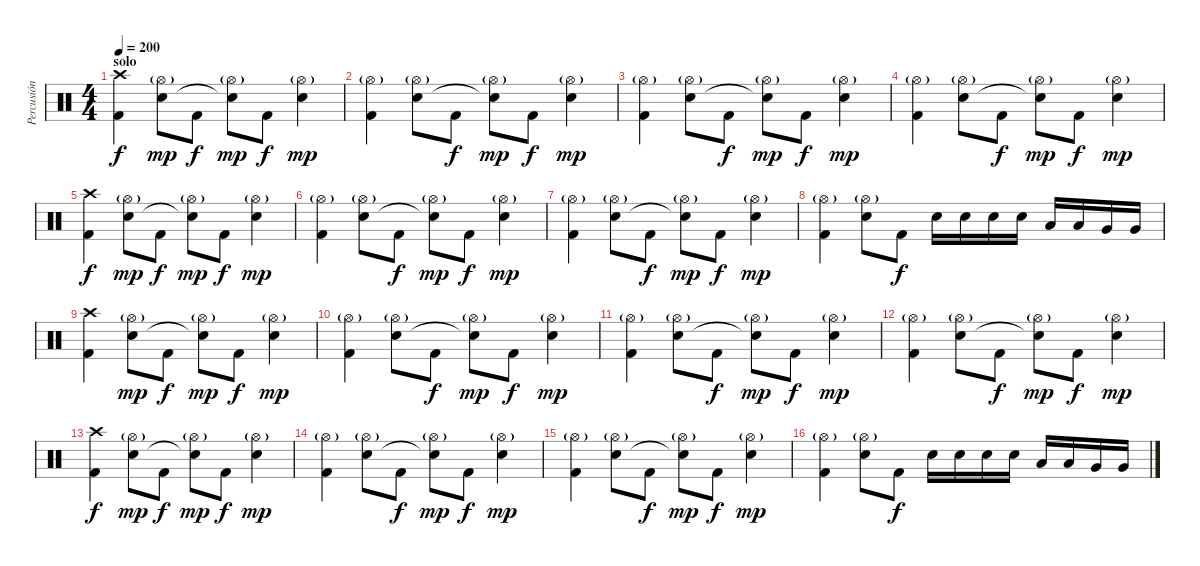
\track ("Percusión" "Percusión") {instrument percussion}
\staff {score}
\articulation defaults
\ts (4 4)
\section ("" "solo")
\tempo 200
\clef neutral
\ks c
("Crash high (hit)" "Kick (hit) 2").4{dy f} ("Hi-Hat (open)"{g} "Snare (hit) 2").8{dy mp} "Kick (hit) 2".8{dy f} ("Hi-Hat (open)"{g} "Snare (hit)"{t}).8{dy mp} "Kick (hit) 2".8{dy f} ("Hi-Hat (open)"{g} "Snare (hit) 2").4{dy mp} |
("Hi-Hat (open)"{g} "Kick (hit) 2").4 ("Hi-Hat (open)"{g} "Snare (hit) 2").8 "Kick (hit) 2".8{dy f} ("Hi-Hat (open)"{g} "Snare (hit)"{t}).8{dy mp} "Kick (hit) 2".8{dy f} ("Hi-Hat (open)"{g} "Snare (hit) 2").4{dy mp} |
("Hi-Hat (open)"{g} "Kick (hit) 2").4 ("Hi-Hat (open)"{g} "Snare (hit) 2").8 "Kick (hit) 2".8{dy f} ("Hi-Hat (open)"{g} "Snare (hit)"{t}).8{dy mp} "Kick (hit) 2".8{dy f} ("Hi-Hat (open)"{g} "Snare (hit) 2").4{dy mp} |
("Hi-Hat (open)"{g} "Kick (hit) 2").4 ("Hi-Hat (open)"{g} "Snare (hit) 2").8 "Kick (hit) 2".8{dy f} ("Hi-Hat (open)"{g} "Snare (hit)"{t}).8{dy mp} "Kick (hit) 2".8{dy f} ("Hi-Hat (open)"{g} "Snare (hit) 2").4{dy mp} |
("Crash high (hit)" "Kick (hit) 2").4{dy f} ("Hi-Hat (open)"{g} "Snare (hit) 2").8{dy mp} "Kick (hit) 2".8{dy f} ("Hi-Hat (open)"{g} "Snare (hit)"{t}).8{dy mp} "Kick (hit) 2".8{dy f} ("Hi-Hat (open)"{g} "Snare (hit) 2").4{dy mp} |
("Hi-Hat (open)"{g} "Kick (hit) 2").4 ("Hi-Hat (open)"{g} "Snare (hit) 2").8 "Kick (hit) 2".8{dy f} ("Hi-Hat (open)"{g} "Snare (hit)"{t}).8{dy mp} "Kick (hit) 2".8{dy f} ("Hi-Hat (open)"{g} "Snare (hit) 2").4{dy mp} |
("Hi-Hat (open)"{g} "Kick (hit) 2").4 ("Hi-Hat (open)"{g} "Snare (hit) 2").8 "Kick (hit) 2".8{dy f} ("Hi-Hat (open)"{g} "Snare (hit)"{t}).8{dy mp} "Kick (hit) 2".8{dy f} ("Hi-Hat (open)"{g} "Snare (hit) 2").4{dy mp} |
("Hi-Hat (open)"{g} "Kick (hit) 2").4 ("Hi-Hat (open)"{g} "Snare (hit) 2").8 "Kick (hit) 2".8{dy f} "Snare (hit) 2".16 "Snare (hit) 2".16 "Snare (hit) 2".16 "Snare (hit) 2".16 "Low Tom (hit)".16 "Low Tom (hit)".16 "Very Low Tom (hit)".16 "Very Low Tom (hit)".16 |
("Crash high (hit)" "Kick (hit) 2").4 ("Hi-Hat (open)"{g} "Snare (hit) 2").8{dy mp} "Kick (hit) 2".8{dy f} ("Hi-Hat (open)"{g} "Snare (hit)"{t}).8{dy mp} "Kick (hit) 2".8{dy f} ("Hi-Hat (open)"{g} "Snare (hit) 2").4{dy mp} |
("Hi-Hat (open)"{g} "Kick (hit) 2").4 ("Hi-Hat (open)"{g} "Snare (hit) 2").8 "Kick (hit) 2".8{dy f} ("Hi-Hat (open)"{g} "Snare (hit)"{t}).8{dy mp} "Kick (hit) 2".8{dy f} ("Hi-Hat (open)"{g} "Snare (hit) 2").4{dy mp} |
("Hi-Hat (open)"{g} "Kick (hit) 2").4 ("Hi-Hat (open)"{g} "Snare (hit) 2").8 "Kick (hit) 2".8{dy f} ("Hi-Hat (open)"{g} "Snare (hit)"{t}).8{dy mp} "Kick (hit) 2".8{dy f} ("Hi-Hat (open)"{g} "Snare (hit) 2").4{dy mp} |
("Hi-Hat (open)"{g} "Kick (hit) 2").4 ("Hi-Hat (open)"{g} "Snare (hit) 2").8 "Kick (hit) 2".8{dy f} ("Hi-Hat (open)"{g} "Snare (hit)"{t}).8{dy mp} "Kick (hit) 2".8{dy f} ("Hi-Hat (open)"{g} "Snare (hit) 2").4{dy mp} |
("Crash high (hit)" "Kick (hit) 2").4{dy f} ("Hi-Hat (open)"{g} "Snare (hit) 2").8{dy mp} "Kick (hit) 2".8{dy f} ("Hi-Hat (open)"{g} "Snare (hit)"{t}).8{dy mp} "Kick (hit) 2".8{dy f} ("Hi-Hat (open)"{g} "Snare (hit) 2").4{dy mp} |
("Hi-Hat (open)"{g} "Kick (hit) 2").4 ("Hi-Hat (open)"{g} "Snare (hit) 2").8 "Kick (hit) 2".8{dy f} ("Hi-Hat (open)"{g} "Snare (hit)"{t}).8{dy mp} "Kick (hit) 2".8{dy f} ("Hi-Hat (open)"{g} "Snare (hit) 2").4{dy mp} |
("Hi-Hat (open)"{g} "Kick (hit) 2").4 ("Hi-Hat (open)"{g} "Snare (hit) 2").8 "Kick (hit) 2".8{dy f} ("Hi-Hat (open)"{g} "Snare (hit)"{t}).8{dy mp} "Kick (hit) 2".8{dy f} ("Hi-Hat (open)"{g} "Snare (hit) 2").4{dy mp} |
("Hi-Hat (open)"{g} "Kick (hit) 2").4 ("Hi-Hat (open)"{g} "Snare (hit) 2").8 "Kick (hit) 2".8{dy f} "Snare (hit) 2".16 "Snare (hit) 2".16 "Snare (hit) 2".16 "Snare (hit) 2".16 "Low Tom (hit)".16 "Low Tom (hit)".16 "Very Low Tom (hit)".16 "Very Low Tom (hit)".16
